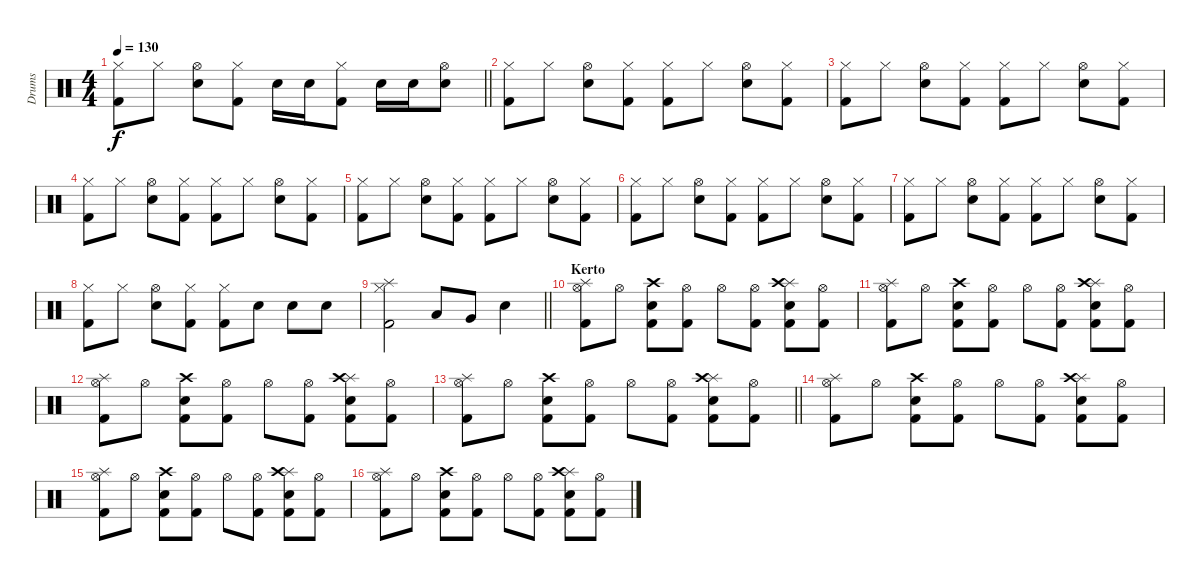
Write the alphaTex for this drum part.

\track ("Drums" "Drums") {instrument percussion}
\staff {score}
\articulation defaults
\ts (4 4)
\tempo 130
\clef neutral
\barLineRight lightlight
\ks c
("Kick (hit) 2" "Hi-Hat (closed)").8{dy f} "Hi-Hat (closed)".8 ("Electric Snare (hit)" "Hi-Hat (open)").8 ("Kick (hit) 2" "Hi-Hat (closed)").8 "Electric Snare (hit)".16 "Electric Snare (hit)".16 ("Kick (hit) 2" "Hi-Hat (closed)").8 "Electric Snare (hit)".16 "Electric Snare (hit)".16 ("Electric Snare (hit)" "Hi-Hat (open)").8 |
("Kick (hit) 2" "Hi-Hat (closed)").8 "Hi-Hat (closed)".8 ("Electric Snare (hit)" "Hi-Hat (open)").8 ("Kick (hit) 2" "Hi-Hat (closed)").8 ("Kick (hit) 2" "Hi-Hat (closed)").8 "Hi-Hat (closed)".8 ("Electric Snare (hit)" "Hi-Hat (open)").8 ("Kick (hit) 2" "Hi-Hat (closed)").8 |
("Kick (hit) 2" "Hi-Hat (closed)").8 "Hi-Hat (closed)".8 ("Electric Snare (hit)" "Hi-Hat (open)").8 ("Kick (hit) 2" "Hi-Hat (closed)").8 ("Kick (hit) 2" "Hi-Hat (closed)").8 "Hi-Hat (closed)".8 ("Electric Snare (hit)" "Hi-Hat (open)").8 ("Kick (hit) 2" "Hi-Hat (closed)").8 |
("Kick (hit) 2" "Hi-Hat (closed)").8 "Hi-Hat (closed)".8 ("Electric Snare (hit)" "Hi-Hat (open)").8 ("Kick (hit) 2" "Hi-Hat (closed)").8 ("Kick (hit) 2" "Hi-Hat (closed)").8 "Hi-Hat (closed)".8 ("Electric Snare (hit)" "Hi-Hat (open)").8 ("Kick (hit) 2" "Hi-Hat (closed)").8 |
("Kick (hit) 2" "Hi-Hat (closed)").8 "Hi-Hat (closed)".8 ("Electric Snare (hit)" "Hi-Hat (open)").8 ("Kick (hit) 2" "Hi-Hat (closed)").8 ("Kick (hit) 2" "Hi-Hat (closed)").8 "Hi-Hat (closed)".8 ("Electric Snare (hit)" "Hi-Hat (open)").8 ("Kick (hit) 2" "Hi-Hat (closed)").8 |
("Kick (hit) 2" "Hi-Hat (closed)").8 "Hi-Hat (closed)".8 ("Electric Snare (hit)" "Hi-Hat (open)").8 ("Kick (hit) 2" "Hi-Hat (closed)").8 ("Kick (hit) 2" "Hi-Hat (closed)").8 "Hi-Hat (closed)".8 ("Electric Snare (hit)" "Hi-Hat (open)").8 ("Kick (hit) 2" "Hi-Hat (closed)").8 |
("Kick (hit) 2" "Hi-Hat (closed)").8 "Hi-Hat (closed)".8 ("Electric Snare (hit)" "Hi-Hat (open)").8 ("Kick (hit) 2" "Hi-Hat (closed)").8 ("Kick (hit) 2" "Hi-Hat (closed)").8 "Hi-Hat (closed)".8 ("Electric Snare (hit)" "Hi-Hat (open)").8 ("Kick (hit) 2" "Hi-Hat (closed)").8 |
("Kick (hit) 2" "Hi-Hat (closed)").8 "Hi-Hat (closed)".8 ("Electric Snare (hit)" "Hi-Hat (open)").8 ("Kick (hit) 2" "Hi-Hat (closed)").8 ("Kick (hit) 2" "Hi-Hat (closed)").8 "Electric Snare (hit)".8 "Electric Snare (hit)".8 "Electric Snare (hit)".8 |
\barLineRight lightlight
("Splash (hit)" "Kick (hit) 2" "Hi-Hat (closed)").2 "Low Tom (hit)".8 "Very Low Tom (hit)".8 "Electric Snare (hit)".4 |
\section ("" "Kerto")
("Splash (hit)" "Kick (hit) 2" "Hi-Hat (open)").8 "Hi-Hat (open)".8 ("Electric Snare (hit)" "Kick (hit) 2" "Crash high (hit)").8 ("Kick (hit) 2" "Hi-Hat (open)").8 "Hi-Hat (open)".8 ("Kick (hit) 2" "Hi-Hat (open)").8 ("Splash (hit)" "Electric Snare (hit)" "Kick (hit) 2" "Crash high (hit)").8 ("Kick (hit) 2" "Hi-Hat (open)").8 |
("Splash (hit)" "Kick (hit) 2" "Hi-Hat (open)").8 "Hi-Hat (open)".8 ("Electric Snare (hit)" "Kick (hit) 2" "Crash high (hit)").8 ("Kick (hit) 2" "Hi-Hat (open)").8 "Hi-Hat (open)".8 ("Kick (hit) 2" "Hi-Hat (open)").8 ("Splash (hit)" "Electric Snare (hit)" "Kick (hit) 2" "Crash high (hit)").8 ("Kick (hit) 2" "Hi-Hat (open)").8 |
("Splash (hit)" "Kick (hit) 2" "Hi-Hat (open)").8 "Hi-Hat (open)".8 ("Electric Snare (hit)" "Kick (hit) 2" "Crash high (hit)").8 ("Kick (hit) 2" "Hi-Hat (open)").8 "Hi-Hat (open)".8 ("Kick (hit) 2" "Hi-Hat (open)").8 ("Splash (hit)" "Electric Snare (hit)" "Kick (hit) 2" "Crash high (hit)").8 ("Kick (hit) 2" "Hi-Hat (open)").8 |
\barLineRight lightlight
("Splash (hit)" "Kick (hit) 2" "Hi-Hat (open)").8 "Hi-Hat (open)".8 ("Electric Snare (hit)" "Kick (hit) 2" "Crash high (hit)").8 ("Kick (hit) 2" "Hi-Hat (open)").8 "Hi-Hat (open)".8 ("Kick (hit) 2" "Hi-Hat (open)").8 ("Splash (hit)" "Electric Snare (hit)" "Kick (hit) 2" "Crash high (hit)").8 ("Kick (hit) 2" "Hi-Hat (open)").8 |
("Splash (hit)" "Kick (hit) 2" "Hi-Hat (open)").8 "Hi-Hat (open)".8 ("Electric Snare (hit)" "Kick (hit) 2" "Crash high (hit)").8 ("Kick (hit) 2" "Hi-Hat (open)").8 "Hi-Hat (open)".8 ("Kick (hit) 2" "Hi-Hat (open)").8 ("Splash (hit)" "Electric Snare (hit)" "Kick (hit) 2" "Crash high (hit)").8 ("Kick (hit) 2" "Hi-Hat (open)").8 |
("Splash (hit)" "Kick (hit) 2" "Hi-Hat (open)").8 "Hi-Hat (open)".8 ("Electric Snare (hit)" "Kick (hit) 2" "Crash high (hit)").8 ("Kick (hit) 2" "Hi-Hat (open)").8 "Hi-Hat (open)".8 ("Kick (hit) 2" "Hi-Hat (open)").8 ("Splash (hit)" "Electric Snare (hit)" "Kick (hit) 2" "Crash high (hit)").8 ("Kick (hit) 2" "Hi-Hat (open)").8 |
("Splash (hit)" "Kick (hit) 2" "Hi-Hat (open)").8 "Hi-Hat (open)".8 ("Electric Snare (hit)" "Kick (hit) 2" "Crash high (hit)").8 ("Kick (hit) 2" "Hi-Hat (open)").8 "Hi-Hat (open)".8 ("Kick (hit) 2" "Hi-Hat (open)").8 ("Splash (hit)" "Electric Snare (hit)" "Kick (hit) 2" "Crash high (hit)").8 ("Kick (hit) 2" "Hi-Hat (open)").8
